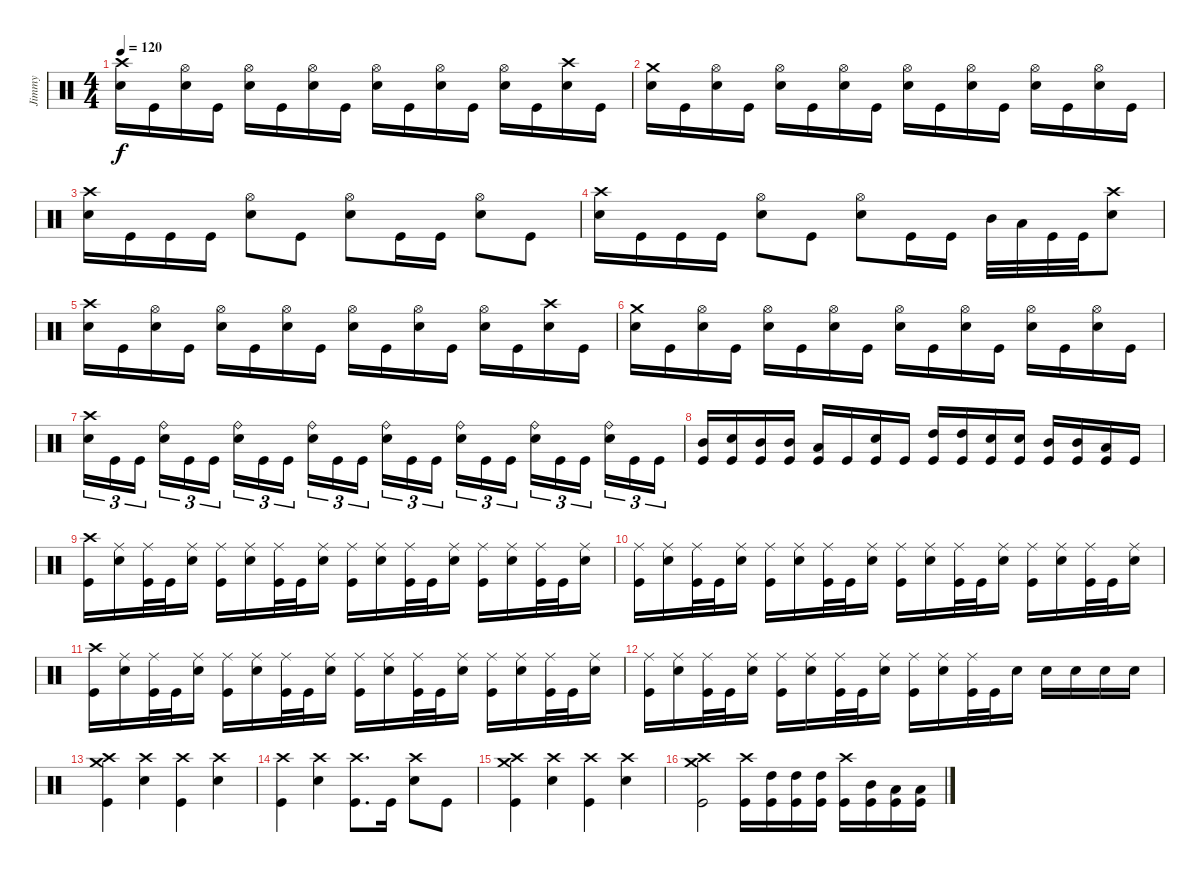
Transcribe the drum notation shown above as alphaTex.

\track ("Jimmy" "Jimmy") {instrument percussion}
\staff {score}
\articulation defaults
\ts (4 4)
\tempo 120
\clef neutral
\ks c
("Snare (hit) 2" "Crash high (hit)").16{dy f} "Kick (hit)".16 ("Snare (hit) 2" "Hi-Hat (open)").16 "Kick (hit)".16 ("Snare (hit) 2" "Hi-Hat (open)").16 "Kick (hit)".16 ("Snare (hit) 2" "Hi-Hat (open)").16 "Kick (hit)".16 ("Snare (hit) 2" "Hi-Hat (open)").16 "Kick (hit)".16 ("Snare (hit) 2" "Hi-Hat (open)").16 "Kick (hit)".16 ("Snare (hit) 2" "Hi-Hat (open)").16 "Kick (hit)".16 ("Snare (hit) 2" "Crash high (hit)").16 "Kick (hit)".16 |
("Snare (hit) 2" "Crash medium (hit)").16 "Kick (hit)".16 ("Snare (hit) 2" "Hi-Hat (open)").16 "Kick (hit)".16 ("Snare (hit) 2" "Hi-Hat (open)").16 "Kick (hit)".16 ("Snare (hit) 2" "Hi-Hat (open)").16 "Kick (hit)".16 ("Snare (hit) 2" "Hi-Hat (open)").16 "Kick (hit)".16 ("Snare (hit) 2" "Hi-Hat (open)").16 "Kick (hit)".16 ("Snare (hit) 2" "Hi-Hat (open)").16 "Kick (hit)".16 ("Snare (hit) 2" "Hi-Hat (open)").16 "Kick (hit)".16 |
("Snare (hit) 2" "Crash high (hit)").16 "Kick (hit)".16 "Kick (hit)".16 "Kick (hit)".16 ("Snare (hit) 2" "Hi-Hat (open)").8 "Kick (hit)".8 ("Snare (hit) 2" "Hi-Hat (open)").8 "Kick (hit)".16 "Kick (hit)".16 ("Snare (hit) 2" "Hi-Hat (open)").8 "Kick (hit)".8 |
("Snare (hit) 2" "Crash high (hit)").16 "Kick (hit)".16 "Kick (hit)".16 "Kick (hit)".16 ("Snare (hit) 2" "Hi-Hat (open)").8 "Kick (hit)".8 ("Snare (hit) 2" "Hi-Hat (open)").8 "Kick (hit)".16 "Kick (hit)".16 "Mid Tom (hit)".32 "Low Tom (hit)".32 "Kick (hit)".32 "Kick (hit)".32 ("Snare (hit) 2" "Crash high (hit)").8 |
("Snare (hit) 2" "Crash high (hit)").16 "Kick (hit)".16 ("Snare (hit) 2" "Hi-Hat (open)").16 "Kick (hit)".16 ("Snare (hit) 2" "Hi-Hat (open)").16 "Kick (hit)".16 ("Snare (hit) 2" "Hi-Hat (open)").16 "Kick (hit)".16 ("Snare (hit) 2" "Hi-Hat (open)").16 "Kick (hit)".16 ("Snare (hit) 2" "Hi-Hat (open)").16 "Kick (hit)".16 ("Snare (hit) 2" "Hi-Hat (open)").16 "Kick (hit)".16 ("Snare (hit) 2" "Crash high (hit)").16 "Kick (hit)".16 |
("Snare (hit) 2" "Crash medium (hit)").16 "Kick (hit)".16 ("Snare (hit) 2" "Hi-Hat (open)").16 "Kick (hit)".16 ("Snare (hit) 2" "Hi-Hat (open)").16 "Kick (hit)".16 ("Snare (hit) 2" "Hi-Hat (open)").16 "Kick (hit)".16 ("Snare (hit) 2" "Hi-Hat (open)").16 "Kick (hit)".16 ("Snare (hit) 2" "Hi-Hat (open)").16 "Kick (hit)".16 ("Snare (hit) 2" "Hi-Hat (open)").16 "Kick (hit)".16 ("Snare (hit) 2" "Hi-Hat (open)").16 "Kick (hit)".16 |
("Snare (hit) 2" "Crash high (hit)").16{tu (3 2)} "Kick (hit)".16{tu (3 2)} "Kick (hit)".16{tu (3 2) beam splitsecondary} ("Snare (hit) 2" "Ride (bell)").16{tu (3 2)} "Kick (hit)".16{tu (3 2)} "Kick (hit)".16{tu (3 2)} ("Snare (hit) 2" "Ride (bell)").16{tu (3 2)} "Kick (hit)".16{tu (3 2)} "Kick (hit)".16{tu (3 2) beam splitsecondary} ("Snare (hit) 2" "Ride (bell)").16{tu (3 2)} "Kick (hit)".16{tu (3 2)} "Kick (hit)".16{tu (3 2)} ("Snare (hit) 2" "Ride (bell)").16{tu (3 2)} "Kick (hit)".16{tu (3 2)} "Kick (hit)".16{tu (3 2) beam splitsecondary} ("Snare (hit) 2" "Ride (bell)").16{tu (3 2)} "Kick (hit)".16{tu (3 2)} "Kick (hit)".16{tu (3 2)} ("Snare (hit) 2" "Ride (bell)").16{tu (3 2)} "Kick (hit)".16{tu (3 2)} "Kick (hit)".16{tu (3 2) beam splitsecondary} ("Snare (hit) 2" "Ride (bell)").16{tu (3 2)} "Kick (hit)".16{tu (3 2)} "Kick (hit)".16{tu (3 2)} |
("Kick (hit)" "Mid Tom (hit)").16 ("Kick (hit)" "Snare (hit) 2").16 ("Kick (hit)" "Mid Tom (hit)").16 ("Kick (hit)" "Mid Tom (hit)").16 ("Low Tom (hit)" "Kick (hit)").16 "Kick (hit)".16 ("Kick (hit)" "Snare (hit) 2").16 "Kick (hit)".16 ("Kick (hit)" "High Tom (hit)").16 ("Kick (hit)" "High Tom (hit)").16 ("Kick (hit)" "Snare (hit) 2").16 ("Kick (hit)" "Snare (hit) 2").16 ("Kick (hit)" "Mid Tom (hit)").16 ("Kick (hit)" "Mid Tom (hit)").16 ("Kick (hit)" "Low Tom (hit)").16 "Kick (hit)".16 |
("Crash high (hit)" "Kick (hit)").16 ("Ride (middle)" "Snare (hit) 2").16 ("Ride (middle)" "Kick (hit)").32 "Kick (hit)".32 ("Ride (middle)" "Snare (hit) 2").16 ("Kick (hit)" "Ride (middle)").16 ("Snare (hit) 2" "Ride (middle)").16 ("Kick (hit)" "Ride (middle)").32 "Kick (hit)".32 ("Snare (hit) 2" "Ride (middle)").16 ("Kick (hit)" "Ride (middle)").16 ("Snare (hit) 2" "Ride (middle)").16 ("Kick (hit)" "Ride (middle)").32 "Kick (hit)".32 ("Snare (hit) 2" "Ride (middle)").16 ("Kick (hit)" "Ride (middle)").16 ("Snare (hit) 2" "Ride (middle)").16 ("Kick (hit)" "Ride (middle)").32 "Kick (hit)".32 ("Snare (hit) 2" "Ride (middle)").16 |
("Kick (hit)" "Ride (middle)").16 ("Snare (hit) 2" "Ride (middle)").16 ("Kick (hit)" "Ride (middle)").32 "Kick (hit)".32 ("Snare (hit) 2" "Ride (middle)").16 ("Kick (hit)" "Ride (middle)").16 ("Snare (hit) 2" "Ride (middle)").16 ("Kick (hit)" "Ride (middle)").32 "Kick (hit)".32 ("Snare (hit) 2" "Ride (middle)").16 ("Kick (hit)" "Ride (middle)").16 ("Snare (hit) 2" "Ride (middle)").16 ("Kick (hit)" "Ride (middle)").32 "Kick (hit)".32 ("Snare (hit) 2" "Ride (middle)").16 ("Kick (hit)" "Ride (middle)").16 ("Snare (hit) 2" "Ride (middle)").16 ("Kick (hit)" "Ride (middle)").32 "Kick (hit)".32 ("Snare (hit) 2" "Ride (middle)").16 |
("Crash high (hit)" "Kick (hit)").16 ("Ride (middle)" "Snare (hit) 2").16 ("Ride (middle)" "Kick (hit)").32 "Kick (hit)".32 ("Ride (middle)" "Snare (hit) 2").16 ("Kick (hit)" "Ride (middle)").16 ("Snare (hit) 2" "Ride (middle)").16 ("Kick (hit)" "Ride (middle)").32 "Kick (hit)".32 ("Snare (hit) 2" "Ride (middle)").16 ("Kick (hit)" "Ride (middle)").16 ("Snare (hit) 2" "Ride (middle)").16 ("Kick (hit)" "Ride (middle)").32 "Kick (hit)".32 ("Snare (hit) 2" "Ride (middle)").16 ("Kick (hit)" "Ride (middle)").16 ("Snare (hit) 2" "Ride (middle)").16 ("Kick (hit)" "Ride (middle)").32 "Kick (hit)".32 ("Snare (hit) 2" "Ride (middle)").16 |
("Kick (hit)" "Ride (middle)").16 ("Snare (hit) 2" "Ride (middle)").16 ("Kick (hit)" "Ride (middle)").32 "Kick (hit)".32 ("Snare (hit) 2" "Ride (middle)").16 ("Kick (hit)" "Ride (middle)").16 ("Snare (hit) 2" "Ride (middle)").16 ("Kick (hit)" "Ride (middle)").32 "Kick (hit)".32 ("Snare (hit) 2" "Ride (middle)").16 ("Kick (hit)" "Ride (middle)").16 ("Snare (hit) 2" "Ride (middle)").16 ("Kick (hit)" "Ride (middle)").32 "Kick (hit)".32 "Snare (hit) 2".16 "Snare (hit) 2".16 "Snare (hit) 2".16 "Snare (hit) 2".16 "Snare (hit) 2".16 |
("Kick (hit)" "Crash medium (hit)" "Crash high (hit)").4 ("Snare (hit) 2" "Crash high (hit)").4 ("Kick (hit)" "Crash high (hit)").4 ("Snare (hit) 2" "Crash high (hit)").4 |
("Kick (hit)" "Crash high (hit)").4 ("Snare (hit) 2" "Crash high (hit)").4 ("Kick (hit)" "Crash high (hit)").8{d} "Kick (hit)".16 ("Snare (hit) 2" "Crash high (hit)").8 "Kick (hit)".8 |
("Kick (hit)" "Crash medium (hit)" "Crash high (hit)").4 ("Snare (hit) 2" "Crash high (hit)").4 ("Kick (hit)" "Crash high (hit)").4 ("Snare (hit) 2" "Crash high (hit)").4 |
("Kick (hit)" "Crash high (hit)" "Crash medium (hit)").2 ("Kick (hit)" "Crash high (hit)").16 ("Kick (hit)" "High Tom (hit)").16 ("Kick (hit)" "High Tom (hit)").16 ("Kick (hit)" "High Tom (hit)").16 ("Kick (hit)" "Crash high (hit)").16 ("Mid Tom (hit)" "Kick (hit)").16 ("Kick (hit)" "Low Tom (hit)").16 ("Kick (hit)" "Low Tom (hit)").16
